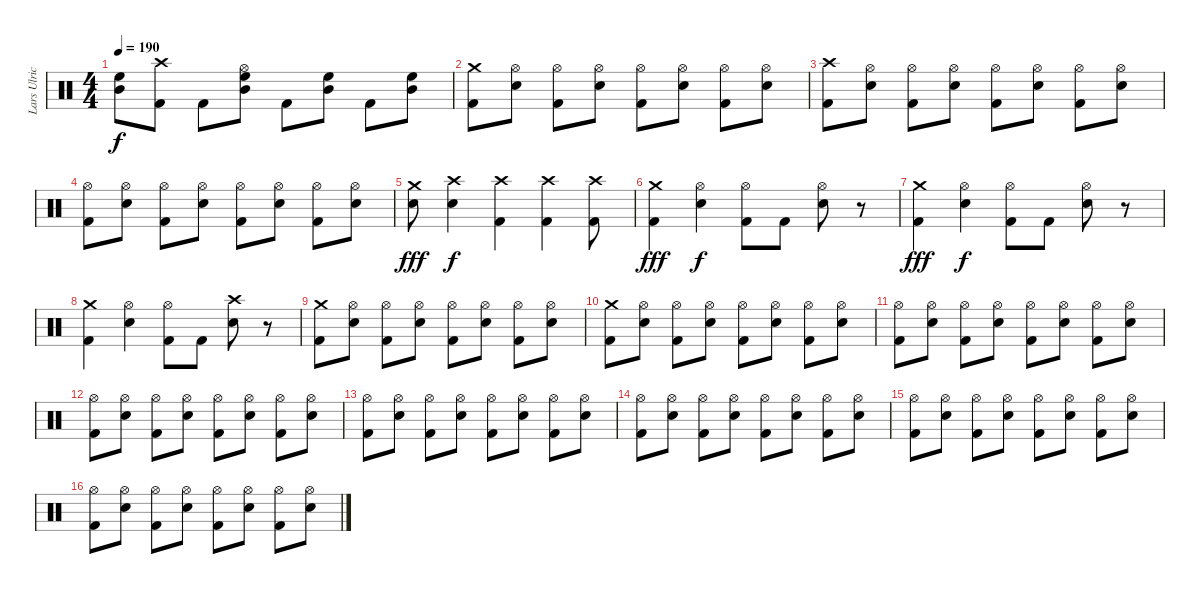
\track ("Lars Ulrich" "Lars Ulric") {instrument percussion}
\staff {score}
\articulation defaults
\ts (4 4)
\tempo 190
\clef neutral
\ks c
("Mid Tom (hit)" "High Floor Tom (hit)").8{dy f} ("Crash high (hit)" "Kick (hit) 2").8 "Kick (hit) 2".8 ("Hi-Hat (open)" "Mid Tom (hit)" "High Floor Tom (hit)").8 "Kick (hit) 2".8 ("Mid Tom (hit)" "High Floor Tom (hit)").8 "Kick (hit) 2".8 ("Mid Tom (hit)" "High Floor Tom (hit)").8 |
("Crash medium (hit)" "Kick (hit) 2").8 ("Hi-Hat (open)" "Snare (hit) 2").8 ("Hi-Hat (open)" "Kick (hit) 2").8 ("Hi-Hat (open)" "Snare (hit) 2").8 ("Hi-Hat (open)" "Kick (hit) 2").8 ("Hi-Hat (open)" "Snare (hit) 2").8 ("Hi-Hat (open)" "Kick (hit) 2").8 ("Hi-Hat (open)" "Snare (hit) 2").8 |
("Crash high (hit)" "Kick (hit) 2").8 ("Hi-Hat (open)" "Snare (hit) 2").8 ("Hi-Hat (open)" "Kick (hit) 2").8 ("Hi-Hat (open)" "Snare (hit) 2").8 ("Hi-Hat (open)" "Kick (hit) 2").8 ("Hi-Hat (open)" "Snare (hit) 2").8 ("Hi-Hat (open)" "Kick (hit) 2").8 ("Hi-Hat (open)" "Snare (hit) 2").8 |
("Hi-Hat (open)" "Kick (hit) 2").8 ("Hi-Hat (open)" "Snare (hit) 2").8 ("Hi-Hat (open)" "Kick (hit) 2").8 ("Hi-Hat (open)" "Snare (hit) 2").8 ("Hi-Hat (open)" "Kick (hit) 2").8 ("Hi-Hat (open)" "Snare (hit) 2").8 ("Hi-Hat (open)" "Kick (hit) 2").8 ("Hi-Hat (open)" "Snare (hit) 2").8 |
("Crash medium (hit)" "Snare (hit) 2").8{dy fff} ("Crash high (hit)" "Snare (hit) 2").4{dy f} ("Crash high (hit)" "Kick (hit) 2").4 ("Crash high (hit)" "Kick (hit) 2").4 ("Crash high (hit)" "Kick (hit) 2").8 |
("Crash medium (hit)" "Kick (hit) 2").4{dy fff} ("Hi-Hat (open)" "Snare (hit) 2").4{dy f} ("Hi-Hat (open)" "Kick (hit) 2").8 "Kick (hit) 2".8 ("Hi-Hat (open)" "Snare (hit) 2").8 r.8 |
("Crash medium (hit)" "Kick (hit) 2").4{dy fff} ("Hi-Hat (open)" "Snare (hit) 2").4{dy f} ("Hi-Hat (open)" "Kick (hit) 2").8 "Kick (hit) 2".8 ("Hi-Hat (open)" "Snare (hit) 2").8 r.8 |
("Crash medium (hit)" "Kick (hit) 2").4 ("Hi-Hat (open)" "Snare (hit) 2").4 ("Hi-Hat (open)" "Kick (hit) 2").8 "Kick (hit) 2".8 ("Crash high (hit)" "Snare (hit) 2").8 r.8 |
("Crash medium (hit)" "Kick (hit) 2").8 ("Hi-Hat (open)" "Snare (hit) 2").8 ("Hi-Hat (open)" "Kick (hit) 2").8 ("Hi-Hat (open)" "Snare (hit) 2").8 ("Hi-Hat (open)" "Kick (hit) 2").8 ("Hi-Hat (open)" "Snare (hit) 2").8 ("Hi-Hat (open)" "Kick (hit) 2").8 ("Hi-Hat (open)" "Snare (hit) 2").8 |
("Crash medium (hit)" "Kick (hit) 2").8 ("Hi-Hat (open)" "Snare (hit) 2").8 ("Hi-Hat (open)" "Kick (hit) 2").8 ("Hi-Hat (open)" "Snare (hit) 2").8 ("Hi-Hat (open)" "Kick (hit) 2").8 ("Hi-Hat (open)" "Snare (hit) 2").8 ("Hi-Hat (open)" "Kick (hit) 2").8 ("Hi-Hat (open)" "Snare (hit) 2").8 |
("Hi-Hat (open)" "Kick (hit) 2").8 ("Hi-Hat (open)" "Snare (hit) 2").8 ("Hi-Hat (open)" "Kick (hit) 2").8 ("Hi-Hat (open)" "Snare (hit) 2").8 ("Hi-Hat (open)" "Kick (hit) 2").8 ("Hi-Hat (open)" "Snare (hit) 2").8 ("Hi-Hat (open)" "Kick (hit) 2").8 ("Hi-Hat (open)" "Snare (hit) 2").8 |
("Hi-Hat (open)" "Kick (hit) 2").8 ("Hi-Hat (open)" "Snare (hit) 2").8 ("Hi-Hat (open)" "Kick (hit) 2").8 ("Hi-Hat (open)" "Snare (hit) 2").8 ("Hi-Hat (open)" "Kick (hit) 2").8 ("Hi-Hat (open)" "Snare (hit) 2").8 ("Hi-Hat (open)" "Kick (hit) 2").8 ("Hi-Hat (open)" "Snare (hit) 2").8 |
("Hi-Hat (open)" "Kick (hit) 2").8 ("Hi-Hat (open)" "Snare (hit) 2").8 ("Hi-Hat (open)" "Kick (hit) 2").8 ("Hi-Hat (open)" "Snare (hit) 2").8 ("Hi-Hat (open)" "Kick (hit) 2").8 ("Hi-Hat (open)" "Snare (hit) 2").8 ("Hi-Hat (open)" "Kick (hit) 2").8 ("Hi-Hat (open)" "Snare (hit) 2").8 |
("Hi-Hat (open)" "Kick (hit) 2").8 ("Hi-Hat (open)" "Snare (hit) 2").8 ("Hi-Hat (open)" "Kick (hit) 2").8 ("Hi-Hat (open)" "Snare (hit) 2").8 ("Hi-Hat (open)" "Kick (hit) 2").8 ("Hi-Hat (open)" "Snare (hit) 2").8 ("Hi-Hat (open)" "Kick (hit) 2").8 ("Hi-Hat (open)" "Snare (hit) 2").8 |
("Hi-Hat (open)" "Kick (hit) 2").8 ("Hi-Hat (open)" "Snare (hit) 2").8 ("Hi-Hat (open)" "Kick (hit) 2").8 ("Hi-Hat (open)" "Snare (hit) 2").8 ("Hi-Hat (open)" "Kick (hit) 2").8 ("Hi-Hat (open)" "Snare (hit) 2").8 ("Hi-Hat (open)" "Kick (hit) 2").8 ("Hi-Hat (open)" "Snare (hit) 2").8 |
("Hi-Hat (open)" "Kick (hit) 2").8 ("Hi-Hat (open)" "Snare (hit) 2").8 ("Hi-Hat (open)" "Kick (hit) 2").8 ("Hi-Hat (open)" "Snare (hit) 2").8 ("Hi-Hat (open)" "Kick (hit) 2").8 ("Hi-Hat (open)" "Snare (hit) 2").8 ("Hi-Hat (open)" "Kick (hit) 2").8 ("Hi-Hat (open)" "Snare (hit) 2").8
